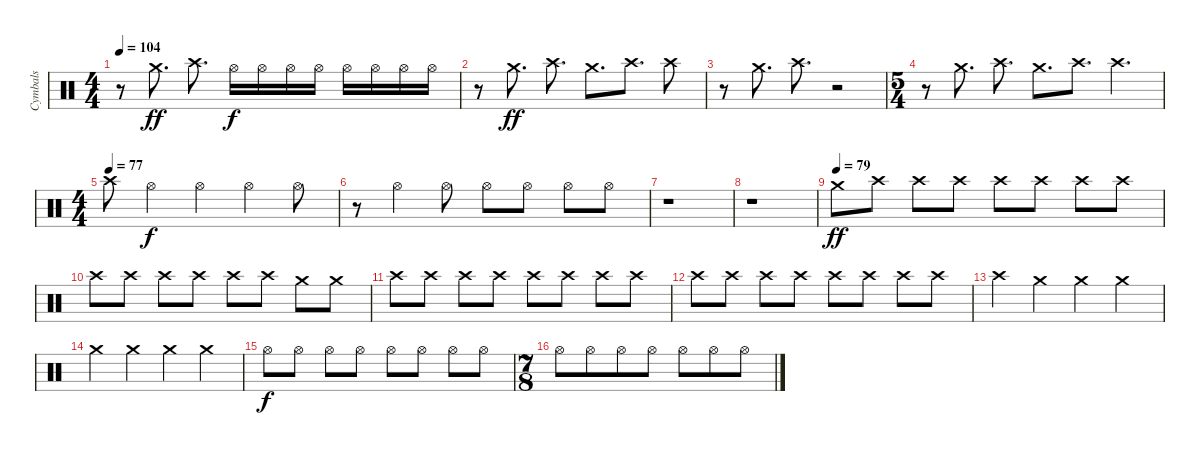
\track ("Cymbals" "Cymbals") {instrument percussion}
\staff {score}
\articulation defaults
\ts (4 4)
\tempo 104
\clef neutral
\ks c
r.8{dy ff} "Crash medium (hit)".8{d} "Crash high (hit)".8{d} "Hi-Hat (open)".16{dy f} "Hi-Hat (open)".16 "Hi-Hat (open)".16 "Hi-Hat (open)".16 "Hi-Hat (open)".16 "Hi-Hat (open)".16 "Hi-Hat (open)".16 "Hi-Hat (open)".16 |
r.8 "Crash medium (hit)".8{d dy ff} "Crash high (hit)".8{d} "Crash medium (hit)".8{d} "Crash high (hit)".8{d} "Crash high (hit)".8 |
r.8 "Crash medium (hit)".8{d} "Crash high (hit)".8{d} r.2 |
\ts (5 4)
r.8 "Crash medium (hit)".8{d} "Crash high (hit)".8{d} "Crash medium (hit)".8{d} "Crash high (hit)".8{d} "Crash high (hit)".4{d} |
\ts (4 4)
\tempo (77)
"Crash high (hit)".8 "Hi-Hat (open)".4{dy f} "Hi-Hat (open)".4 "Hi-Hat (open)".4 "Hi-Hat (open)".8 |
r.8 "Hi-Hat (open)".4 "Hi-Hat (open)".8 "Hi-Hat (open)".8 "Hi-Hat (open)".8 "Hi-Hat (open)".8 "Hi-Hat (open)".8 |
r.1 |
r.1 |
\tempo (79)
"Crash medium (hit)".8{dy ff} "Crash high (hit)".8 "Crash high (hit)".8 "Crash high (hit)".8 "Crash high (hit)".8 "Crash high (hit)".8 "Crash high (hit)".8 "Crash high (hit)".8 |
"Crash high (hit)".8 "Crash high (hit)".8 "Crash high (hit)".8 "Crash high (hit)".8 "Crash high (hit)".8 "Crash high (hit)".8 "Crash medium (hit)".8 "Crash medium (hit)".8 |
"Crash high (hit)".8 "Crash high (hit)".8 "Crash high (hit)".8 "Crash high (hit)".8 "Crash high (hit)".8 "Crash high (hit)".8 "Crash high (hit)".8 "Crash high (hit)".8 |
"Crash high (hit)".8 "Crash high (hit)".8 "Crash high (hit)".8 "Crash high (hit)".8 "Crash high (hit)".8 "Crash high (hit)".8 "Crash high (hit)".8 "Crash high (hit)".8 |
"Crash high (hit)".4 "Crash medium (hit)".4 "Crash medium (hit)".4 "Crash medium (hit)".4 |
"Crash medium (hit)".4 "Crash medium (hit)".4 "Crash medium (hit)".4 "Crash medium (hit)".4 |
"Hi-Hat (open)".8{dy f} "Hi-Hat (open)".8 "Hi-Hat (open)".8 "Hi-Hat (open)".8 "Hi-Hat (open)".8 "Hi-Hat (open)".8 "Hi-Hat (open)".8 "Hi-Hat (open)".8 |
\ts (7 8)
"Hi-Hat (open)".8 "Hi-Hat (open)".8 "Hi-Hat (open)".8 "Hi-Hat (open)".8 "Hi-Hat (open)".8 "Hi-Hat (open)".8 "Hi-Hat (open)".8
